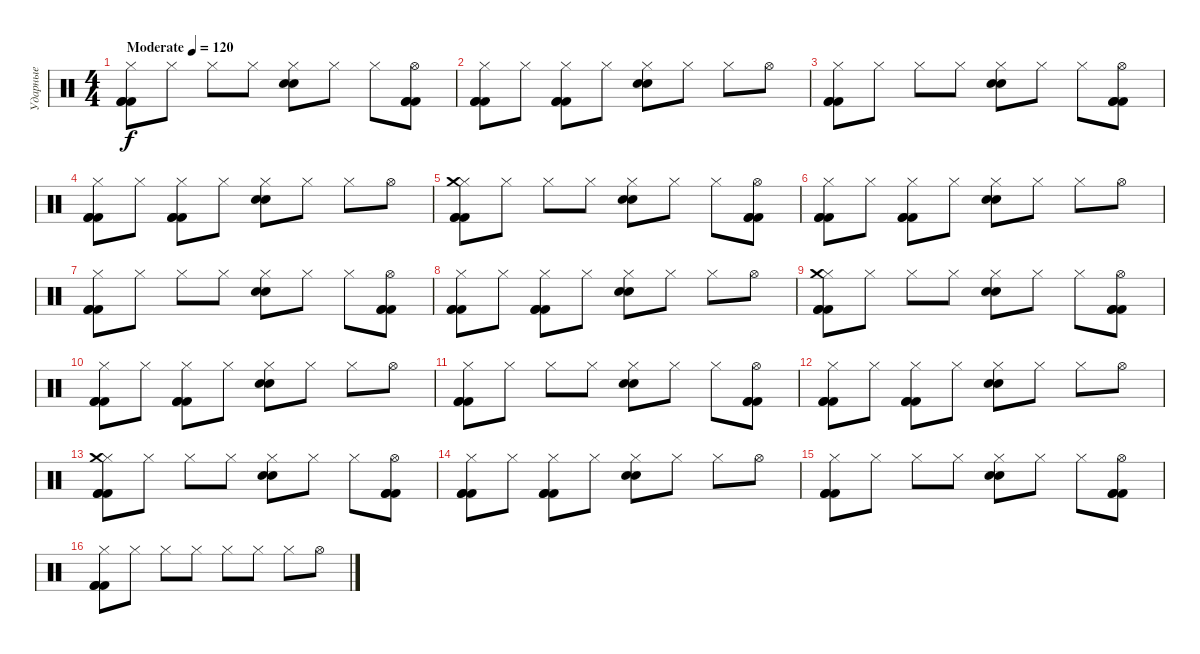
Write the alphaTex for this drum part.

\track ("Ударные" "Ударные") {instrument percussion}
\staff {score}
\articulation defaults
\ts (4 4)
\tempo (120 "Moderate")
\clef neutral
\ks c
("Hi-Hat (closed)" "Kick (hit) 2" "Kick (hit) 2" "Kick (hit) 2").8{dy f} "Hi-Hat (closed)".8 "Hi-Hat (closed)".8 "Hi-Hat (closed)".8 ("Hi-Hat (closed)" "Snare (hit) 2" "Snare (hit) 2").8 "Hi-Hat (closed)".8 "Hi-Hat (closed)".8 ("Hi-Hat (open)" "Kick (hit) 2" "Kick (hit) 2" "Kick (hit) 2").8 |
("Hi-Hat (closed)" "Kick (hit) 2" "Kick (hit) 2" "Kick (hit) 2").8 "Hi-Hat (closed)".8 ("Hi-Hat (closed)" "Kick (hit) 2" "Kick (hit) 2" "Kick (hit) 2").8 "Hi-Hat (closed)".8 ("Hi-Hat (closed)" "Snare (hit) 2" "Snare (hit) 2").8 "Hi-Hat (closed)".8 "Hi-Hat (closed)".8 "Hi-Hat (open)".8 |
("Hi-Hat (closed)" "Kick (hit) 2" "Kick (hit) 2" "Kick (hit) 2").8 "Hi-Hat (closed)".8 "Hi-Hat (closed)".8 "Hi-Hat (closed)".8 ("Hi-Hat (closed)" "Snare (hit) 2" "Snare (hit) 2").8 "Hi-Hat (closed)".8 "Hi-Hat (closed)".8 ("Hi-Hat (open)" "Kick (hit) 2" "Kick (hit) 2" "Kick (hit) 2").8 |
("Hi-Hat (closed)" "Kick (hit) 2" "Kick (hit) 2" "Kick (hit) 2").8 "Hi-Hat (closed)".8 ("Hi-Hat (closed)" "Kick (hit) 2" "Kick (hit) 2" "Kick (hit) 2").8 "Hi-Hat (closed)".8 ("Hi-Hat (closed)" "Snare (hit) 2" "Snare (hit) 2").8 "Hi-Hat (closed)".8 "Hi-Hat (closed)".8 "Hi-Hat (open)".8 |
("Hi-Hat (closed)" "Kick (hit) 2" "Kick (hit) 2" "Kick (hit) 2" "Crash medium (hit)").8 "Hi-Hat (closed)".8 "Hi-Hat (closed)".8 "Hi-Hat (closed)".8 ("Hi-Hat (closed)" "Snare (hit) 2" "Snare (hit) 2").8 "Hi-Hat (closed)".8 "Hi-Hat (closed)".8 ("Hi-Hat (open)" "Kick (hit) 2" "Kick (hit) 2" "Kick (hit) 2").8 |
("Hi-Hat (closed)" "Kick (hit) 2" "Kick (hit) 2" "Kick (hit) 2").8 "Hi-Hat (closed)".8 ("Hi-Hat (closed)" "Kick (hit) 2" "Kick (hit) 2" "Kick (hit) 2").8 "Hi-Hat (closed)".8 ("Hi-Hat (closed)" "Snare (hit) 2" "Snare (hit) 2").8 "Hi-Hat (closed)".8 "Hi-Hat (closed)".8 "Hi-Hat (open)".8 |
("Hi-Hat (closed)" "Kick (hit) 2" "Kick (hit) 2" "Kick (hit) 2").8 "Hi-Hat (closed)".8 "Hi-Hat (closed)".8 "Hi-Hat (closed)".8 ("Hi-Hat (closed)" "Snare (hit) 2" "Snare (hit) 2").8 "Hi-Hat (closed)".8 "Hi-Hat (closed)".8 ("Hi-Hat (open)" "Kick (hit) 2" "Kick (hit) 2" "Kick (hit) 2").8 |
("Hi-Hat (closed)" "Kick (hit) 2" "Kick (hit) 2" "Kick (hit) 2").8 "Hi-Hat (closed)".8 ("Hi-Hat (closed)" "Kick (hit) 2" "Kick (hit) 2" "Kick (hit) 2").8 "Hi-Hat (closed)".8 ("Hi-Hat (closed)" "Snare (hit) 2" "Snare (hit) 2").8 "Hi-Hat (closed)".8 "Hi-Hat (closed)".8 "Hi-Hat (open)".8 |
("Hi-Hat (closed)" "Kick (hit) 2" "Kick (hit) 2" "Kick (hit) 2" "Crash medium (hit)").8 "Hi-Hat (closed)".8 "Hi-Hat (closed)".8 "Hi-Hat (closed)".8 ("Hi-Hat (closed)" "Snare (hit) 2" "Snare (hit) 2").8 "Hi-Hat (closed)".8 "Hi-Hat (closed)".8 ("Hi-Hat (open)" "Kick (hit) 2" "Kick (hit) 2" "Kick (hit) 2").8 |
("Hi-Hat (closed)" "Kick (hit) 2" "Kick (hit) 2" "Kick (hit) 2").8 "Hi-Hat (closed)".8 ("Hi-Hat (closed)" "Kick (hit) 2" "Kick (hit) 2" "Kick (hit) 2").8 "Hi-Hat (closed)".8 ("Hi-Hat (closed)" "Snare (hit) 2" "Snare (hit) 2").8 "Hi-Hat (closed)".8 "Hi-Hat (closed)".8 "Hi-Hat (open)".8 |
("Hi-Hat (closed)" "Kick (hit) 2" "Kick (hit) 2" "Kick (hit) 2").8 "Hi-Hat (closed)".8 "Hi-Hat (closed)".8 "Hi-Hat (closed)".8 ("Hi-Hat (closed)" "Snare (hit) 2" "Snare (hit) 2").8 "Hi-Hat (closed)".8 "Hi-Hat (closed)".8 ("Hi-Hat (open)" "Kick (hit) 2" "Kick (hit) 2" "Kick (hit) 2").8 |
("Hi-Hat (closed)" "Kick (hit) 2" "Kick (hit) 2" "Kick (hit) 2").8 "Hi-Hat (closed)".8 ("Hi-Hat (closed)" "Kick (hit) 2" "Kick (hit) 2" "Kick (hit) 2").8 "Hi-Hat (closed)".8 ("Hi-Hat (closed)" "Snare (hit) 2" "Snare (hit) 2").8 "Hi-Hat (closed)".8 "Hi-Hat (closed)".8 "Hi-Hat (open)".8 |
("Hi-Hat (closed)" "Kick (hit) 2" "Kick (hit) 2" "Kick (hit) 2" "Crash medium (hit)").8 "Hi-Hat (closed)".8 "Hi-Hat (closed)".8 "Hi-Hat (closed)".8 ("Hi-Hat (closed)" "Snare (hit) 2" "Snare (hit) 2").8 "Hi-Hat (closed)".8 "Hi-Hat (closed)".8 ("Hi-Hat (open)" "Kick (hit) 2" "Kick (hit) 2" "Kick (hit) 2").8 |
("Hi-Hat (closed)" "Kick (hit) 2" "Kick (hit) 2" "Kick (hit) 2").8 "Hi-Hat (closed)".8 ("Hi-Hat (closed)" "Kick (hit) 2" "Kick (hit) 2" "Kick (hit) 2").8 "Hi-Hat (closed)".8 ("Hi-Hat (closed)" "Snare (hit) 2" "Snare (hit) 2").8 "Hi-Hat (closed)".8 "Hi-Hat (closed)".8 "Hi-Hat (open)".8 |
("Hi-Hat (closed)" "Kick (hit) 2" "Kick (hit) 2" "Kick (hit) 2").8 "Hi-Hat (closed)".8 "Hi-Hat (closed)".8 "Hi-Hat (closed)".8 ("Hi-Hat (closed)" "Snare (hit) 2" "Snare (hit) 2").8 "Hi-Hat (closed)".8 "Hi-Hat (closed)".8 ("Hi-Hat (open)" "Kick (hit) 2" "Kick (hit) 2" "Kick (hit) 2").8 |
("Hi-Hat (closed)" "Kick (hit) 2" "Kick (hit) 2" "Kick (hit) 2").8 "Hi-Hat (closed)".8 "Hi-Hat (closed)".8 "Hi-Hat (closed)".8 "Hi-Hat (closed)".8 "Hi-Hat (closed)".8 "Hi-Hat (closed)".8 "Hi-Hat (open)".8
